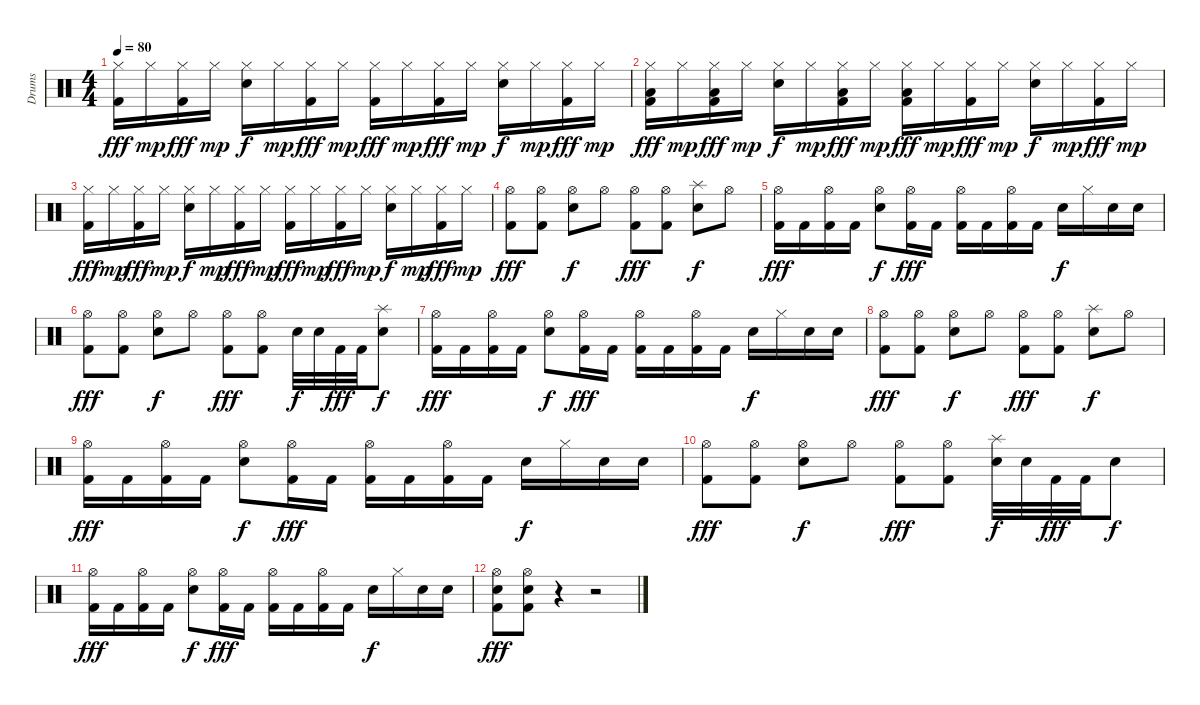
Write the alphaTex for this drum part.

\track ("Drums" "Drums") {instrument percussion}
\staff {score}
\articulation defaults
\ts (4 4)
\tempo 80
\clef neutral
\ks c
("Hi-Hat (closed)" "Kick (hit) 2").16{dy fff} "Hi-Hat (closed)".16{dy mp} ("Hi-Hat (closed)" "Kick (hit) 2").16{dy fff} "Hi-Hat (closed)".16{dy mp} ("Hi-Hat (closed)" "Snare (hit) 2").16{dy f} "Hi-Hat (closed)".16{dy mp} ("Hi-Hat (closed)" "Kick (hit) 2").16{dy fff} "Hi-Hat (closed)".16{dy mp} ("Hi-Hat (closed)" "Kick (hit) 2").16{dy fff} "Hi-Hat (closed)".16{dy mp} ("Hi-Hat (closed)" "Kick (hit) 2").16{dy fff} "Hi-Hat (closed)".16{dy mp} ("Hi-Hat (closed)" "Snare (hit) 2").16{dy f} "Hi-Hat (closed)".16{dy mp} ("Hi-Hat (closed)" "Kick (hit) 2").16{dy fff} "Hi-Hat (closed)".16{dy mp} |
("Hi-Hat (closed)" "Low Floor Tom (hit)" "Kick (hit) 2").16{dy fff} "Hi-Hat (closed)".16{dy mp} ("Hi-Hat (closed)" "Low Floor Tom (hit)" "Kick (hit) 2").16{dy fff} "Hi-Hat (closed)".16{dy mp} ("Hi-Hat (closed)" "Snare (hit) 2").16{dy f} "Hi-Hat (closed)".16{dy mp} ("Hi-Hat (closed)" "Low Floor Tom (hit)" "Kick (hit) 2").16{dy fff} "Hi-Hat (closed)".16{dy mp} ("Hi-Hat (closed)" "Low Floor Tom (hit)" "Kick (hit) 2").16{dy fff} "Hi-Hat (closed)".16{dy mp} ("Hi-Hat (closed)" "Kick (hit) 2").16{dy fff} "Hi-Hat (closed)".16{dy mp} ("Hi-Hat (closed)" "Snare (hit) 2").16{dy f} "Hi-Hat (closed)".16{dy mp} ("Hi-Hat (closed)" "Kick (hit) 2").16{dy fff} "Hi-Hat (closed)".16{dy mp} |
("Hi-Hat (closed)" "Kick (hit) 2").16{dy fff} "Hi-Hat (closed)".16{dy mp} ("Hi-Hat (closed)" "Kick (hit) 2").16{dy fff} "Hi-Hat (closed)".16{dy mp} ("Hi-Hat (closed)" "Snare (hit) 2").16{dy f} "Hi-Hat (closed)".16{dy mp} ("Hi-Hat (closed)" "Kick (hit) 2").16{dy fff} "Hi-Hat (closed)".16{dy mp} ("Hi-Hat (closed)" "Kick (hit) 2").16{dy fff} "Hi-Hat (closed)".16{dy mp} ("Hi-Hat (closed)" "Kick (hit) 2").16{dy fff} "Hi-Hat (closed)".16{dy mp} ("Hi-Hat (closed)" "Snare (hit) 2").16{dy f} "Hi-Hat (closed)".16{dy mp} ("Hi-Hat (closed)" "Kick (hit) 2").16{dy fff} "Hi-Hat (closed)".16{dy mp} |
("Hi-Hat (open)" "Kick (hit) 2").8{dy fff} ("Hi-Hat (open)" "Kick (hit) 2").8 ("Hi-Hat (open)" "Snare (hit) 2").8{dy f} "Hi-Hat (open)".8 ("Hi-Hat (open)" "Kick (hit) 2").8{dy fff} ("Hi-Hat (open)" "Kick (hit) 2").8 ("Splash (hit)" "Snare (hit) 2").8{dy f} "Hi-Hat (open)".8 |
("Hi-Hat (open)" "Kick (hit) 2").16{dy fff} "Kick (hit) 2".16 ("Hi-Hat (open)" "Kick (hit) 2").16 "Kick (hit) 2".16 ("Hi-Hat (open)" "Snare (hit) 2").8{dy f} ("Hi-Hat (open)" "Kick (hit) 2").16{dy fff} "Kick (hit) 2".16 ("Hi-Hat (open)" "Kick (hit) 2").16 "Kick (hit) 2".16 ("Hi-Hat (open)" "Kick (hit) 2").16 "Kick (hit) 2".16 "Snare (hit) 2".16{dy f} "Hi-Hat (closed)".16 "Snare (hit) 2".16 "Snare (hit) 2".16 |
("Hi-Hat (open)" "Kick (hit) 2").8{dy fff} ("Hi-Hat (open)" "Kick (hit) 2").8 ("Hi-Hat (open)" "Snare (hit) 2").8{dy f} "Hi-Hat (open)".8 ("Hi-Hat (open)" "Kick (hit) 2").8{dy fff} ("Hi-Hat (open)" "Kick (hit) 2").8 "Snare (hit) 2".32{dy f} "Snare (hit) 2".32 "Kick (hit) 2".32{dy fff} "Kick (hit) 2".32 ("Splash (hit)" "Snare (hit) 2").8{dy f} |
("Hi-Hat (open)" "Kick (hit) 2").16{dy fff} "Kick (hit) 2".16 ("Hi-Hat (open)" "Kick (hit) 2").16 "Kick (hit) 2".16 ("Hi-Hat (open)" "Snare (hit) 2").8{dy f} ("Hi-Hat (open)" "Kick (hit) 2").16{dy fff} "Kick (hit) 2".16 ("Hi-Hat (open)" "Kick (hit) 2").16 "Kick (hit) 2".16 ("Hi-Hat (open)" "Kick (hit) 2").16 "Kick (hit) 2".16 "Snare (hit) 2".16{dy f} "Hi-Hat (closed)".16 "Snare (hit) 2".16 "Snare (hit) 2".16 |
("Hi-Hat (open)" "Kick (hit) 2").8{dy fff} ("Hi-Hat (open)" "Kick (hit) 2").8 ("Hi-Hat (open)" "Snare (hit) 2").8{dy f} "Hi-Hat (open)".8 ("Hi-Hat (open)" "Kick (hit) 2").8{dy fff} ("Hi-Hat (open)" "Kick (hit) 2").8 ("Splash (hit)" "Snare (hit) 2").8{dy f} "Hi-Hat (open)".8 |
("Hi-Hat (open)" "Kick (hit) 2").16{dy fff} "Kick (hit) 2".16 ("Hi-Hat (open)" "Kick (hit) 2").16 "Kick (hit) 2".16 ("Hi-Hat (open)" "Snare (hit) 2").8{dy f} ("Hi-Hat (open)" "Kick (hit) 2").16{dy fff} "Kick (hit) 2".16 ("Hi-Hat (open)" "Kick (hit) 2").16 "Kick (hit) 2".16 ("Hi-Hat (open)" "Kick (hit) 2").16 "Kick (hit) 2".16 "Snare (hit) 2".16{dy f} "Hi-Hat (closed)".16 "Snare (hit) 2".16 "Snare (hit) 2".16 |
("Hi-Hat (open)" "Kick (hit) 2").8{dy fff} ("Hi-Hat (open)" "Kick (hit) 2").8 ("Hi-Hat (open)" "Snare (hit) 2").8{dy f} "Hi-Hat (open)".8 ("Hi-Hat (open)" "Kick (hit) 2").8{dy fff} ("Hi-Hat (open)" "Kick (hit) 2").8 ("Splash (hit)" "Snare (hit) 2").32{dy f} "Snare (hit) 2".32 "Kick (hit) 2".32{dy fff} "Kick (hit) 2".32 "Snare (hit) 2".8{dy f} |
("Hi-Hat (open)" "Kick (hit) 2").16{dy fff} "Kick (hit) 2".16 ("Hi-Hat (open)" "Kick (hit) 2").16 "Kick (hit) 2".16 ("Hi-Hat (open)" "Snare (hit) 2").8{dy f} ("Hi-Hat (open)" "Kick (hit) 2").16{dy fff} "Kick (hit) 2".16 ("Hi-Hat (open)" "Kick (hit) 2").16 "Kick (hit) 2".16 ("Hi-Hat (open)" "Kick (hit) 2").16 "Kick (hit) 2".16 "Snare (hit) 2".16{dy f} "Hi-Hat (closed)".16 "Snare (hit) 2".16 "Snare (hit) 2".16 |
("Hi-Hat (open)" "Snare (hit) 2" "Kick (hit) 2").8{dy fff} ("Hi-Hat (open)" "Snare (hit) 2" "Kick (hit) 2").8 r.4 r.2
